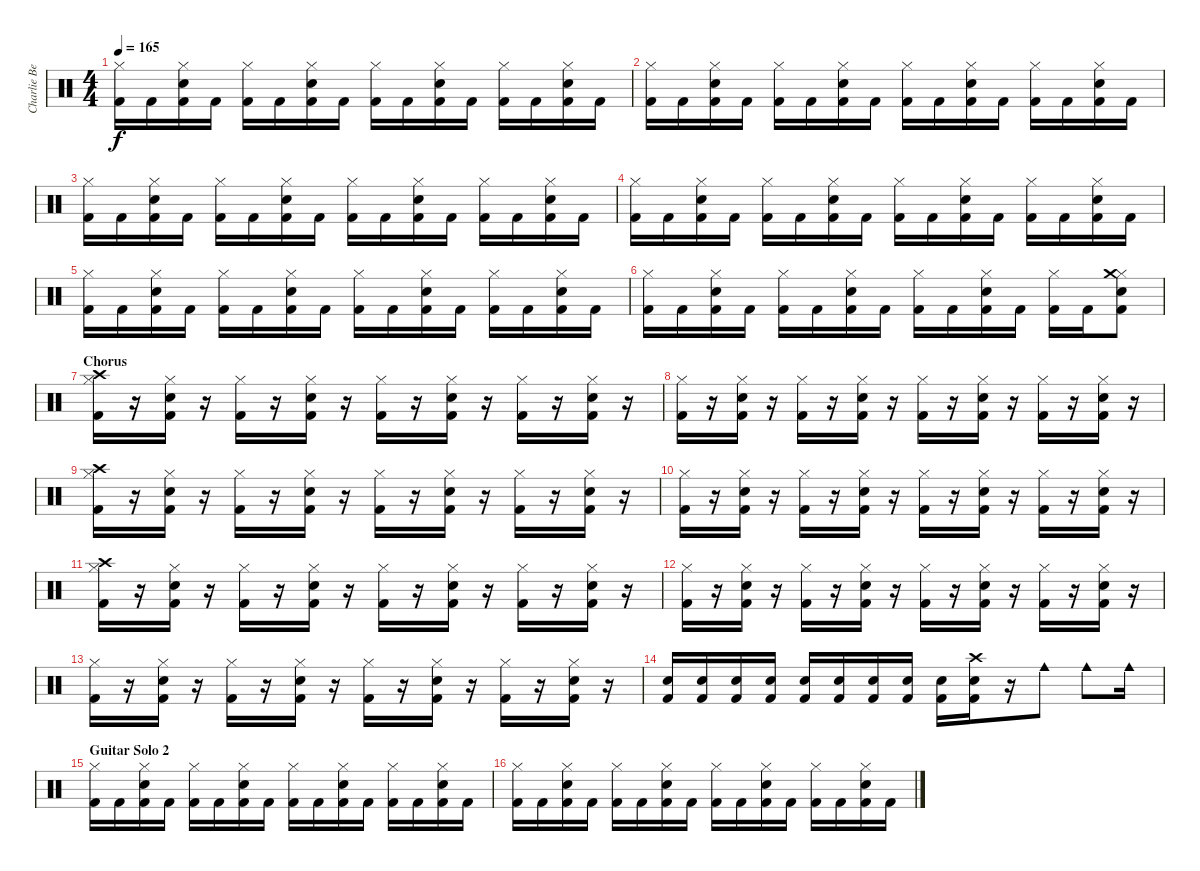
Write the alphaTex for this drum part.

\track ("Charlie Benante" "Charlie Be") {instrument percussion}
\staff {score}
\articulation defaults
\ts (4 4)
\tempo 165
\clef neutral
\ks c
("Kick (hit) 2" "Hi-Hat (closed)").16{dy f} "Kick (hit) 2".16 ("Kick (hit) 2" "Hi-Hat (closed)" "Electric Snare (hit)").16 "Kick (hit) 2".16 ("Kick (hit) 2" "Hi-Hat (closed)").16 "Kick (hit) 2".16 ("Kick (hit) 2" "Hi-Hat (closed)" "Electric Snare (hit)").16 "Kick (hit) 2".16 ("Kick (hit) 2" "Hi-Hat (closed)").16 "Kick (hit) 2".16 ("Kick (hit) 2" "Hi-Hat (closed)" "Electric Snare (hit)").16 "Kick (hit) 2".16 ("Kick (hit) 2" "Hi-Hat (closed)").16 "Kick (hit) 2".16 ("Kick (hit) 2" "Hi-Hat (closed)" "Electric Snare (hit)").16 "Kick (hit) 2".16 |
("Kick (hit) 2" "Hi-Hat (closed)").16 "Kick (hit) 2".16 ("Kick (hit) 2" "Hi-Hat (closed)" "Electric Snare (hit)").16 "Kick (hit) 2".16 ("Kick (hit) 2" "Hi-Hat (closed)").16 "Kick (hit) 2".16 ("Kick (hit) 2" "Hi-Hat (closed)" "Electric Snare (hit)").16 "Kick (hit) 2".16 ("Kick (hit) 2" "Hi-Hat (closed)").16 "Kick (hit) 2".16 ("Kick (hit) 2" "Hi-Hat (closed)" "Electric Snare (hit)").16 "Kick (hit) 2".16 ("Kick (hit) 2" "Hi-Hat (closed)").16 "Kick (hit) 2".16 ("Kick (hit) 2" "Hi-Hat (closed)" "Electric Snare (hit)").16 "Kick (hit) 2".16 |
("Kick (hit) 2" "Hi-Hat (closed)").16 "Kick (hit) 2".16 ("Kick (hit) 2" "Hi-Hat (closed)" "Electric Snare (hit)").16 "Kick (hit) 2".16 ("Kick (hit) 2" "Hi-Hat (closed)").16 "Kick (hit) 2".16 ("Kick (hit) 2" "Hi-Hat (closed)" "Electric Snare (hit)").16 "Kick (hit) 2".16 ("Kick (hit) 2" "Hi-Hat (closed)").16 "Kick (hit) 2".16 ("Kick (hit) 2" "Hi-Hat (closed)" "Electric Snare (hit)").16 "Kick (hit) 2".16 ("Kick (hit) 2" "Hi-Hat (closed)").16 "Kick (hit) 2".16 ("Kick (hit) 2" "Hi-Hat (closed)" "Electric Snare (hit)").16 "Kick (hit) 2".16 |
("Kick (hit) 2" "Hi-Hat (closed)").16 "Kick (hit) 2".16 ("Kick (hit) 2" "Hi-Hat (closed)" "Electric Snare (hit)").16 "Kick (hit) 2".16 ("Kick (hit) 2" "Hi-Hat (closed)").16 "Kick (hit) 2".16 ("Kick (hit) 2" "Hi-Hat (closed)" "Electric Snare (hit)").16 "Kick (hit) 2".16 ("Kick (hit) 2" "Hi-Hat (closed)").16 "Kick (hit) 2".16 ("Kick (hit) 2" "Hi-Hat (closed)" "Electric Snare (hit)").16 "Kick (hit) 2".16 ("Kick (hit) 2" "Hi-Hat (closed)").16 "Kick (hit) 2".16 ("Kick (hit) 2" "Hi-Hat (closed)" "Electric Snare (hit)").16 "Kick (hit) 2".16 |
("Kick (hit) 2" "Hi-Hat (closed)").16 "Kick (hit) 2".16 ("Kick (hit) 2" "Hi-Hat (closed)" "Electric Snare (hit)").16 "Kick (hit) 2".16 ("Kick (hit) 2" "Hi-Hat (closed)").16 "Kick (hit) 2".16 ("Kick (hit) 2" "Hi-Hat (closed)" "Electric Snare (hit)").16 "Kick (hit) 2".16 ("Kick (hit) 2" "Hi-Hat (closed)").16 "Kick (hit) 2".16 ("Kick (hit) 2" "Hi-Hat (closed)" "Electric Snare (hit)").16 "Kick (hit) 2".16 ("Kick (hit) 2" "Hi-Hat (closed)").16 "Kick (hit) 2".16 ("Kick (hit) 2" "Hi-Hat (closed)" "Electric Snare (hit)").16 "Kick (hit) 2".16 |
("Kick (hit) 2" "Hi-Hat (closed)").16 "Kick (hit) 2".16 ("Kick (hit) 2" "Hi-Hat (closed)" "Electric Snare (hit)").16 "Kick (hit) 2".16 ("Kick (hit) 2" "Hi-Hat (closed)").16 "Kick (hit) 2".16 ("Kick (hit) 2" "Hi-Hat (closed)" "Electric Snare (hit)").16 "Kick (hit) 2".16 ("Kick (hit) 2" "Hi-Hat (closed)").16 "Kick (hit) 2".16 ("Kick (hit) 2" "Hi-Hat (closed)" "Electric Snare (hit)").16 "Kick (hit) 2".16 ("Kick (hit) 2" "Hi-Hat (closed)").16 "Kick (hit) 2".16 ("Kick (hit) 2" "Hi-Hat (closed)" "Electric Snare (hit)" "Crash medium (hit)").8 |
\section ("" "Chorus")
("Kick (hit) 2" "Hi-Hat (closed)" "Crash high (hit)").16 r.16 ("Kick (hit) 2" "Hi-Hat (closed)" "Electric Snare (hit)").16 r.16 ("Kick (hit) 2" "Hi-Hat (closed)").16 r.16 ("Kick (hit) 2" "Hi-Hat (closed)" "Electric Snare (hit)").16 r.16 ("Kick (hit) 2" "Hi-Hat (closed)").16 r.16 ("Kick (hit) 2" "Hi-Hat (closed)" "Electric Snare (hit)").16 r.16 ("Kick (hit) 2" "Hi-Hat (closed)").16 r.16 ("Kick (hit) 2" "Hi-Hat (closed)" "Electric Snare (hit)").16 r.16 |
("Kick (hit) 2" "Hi-Hat (closed)").16 r.16 ("Kick (hit) 2" "Hi-Hat (closed)" "Electric Snare (hit)").16 r.16 ("Kick (hit) 2" "Hi-Hat (closed)").16 r.16 ("Kick (hit) 2" "Hi-Hat (closed)" "Electric Snare (hit)").16 r.16 ("Kick (hit) 2" "Hi-Hat (closed)").16 r.16 ("Kick (hit) 2" "Hi-Hat (closed)" "Electric Snare (hit)").16 r.16 ("Kick (hit) 2" "Hi-Hat (closed)").16 r.16 ("Kick (hit) 2" "Hi-Hat (closed)" "Electric Snare (hit)").16 r.16 |
("Kick (hit) 2" "Hi-Hat (closed)" "Crash high (hit)").16 r.16 ("Kick (hit) 2" "Hi-Hat (closed)" "Electric Snare (hit)").16 r.16 ("Kick (hit) 2" "Hi-Hat (closed)").16 r.16 ("Kick (hit) 2" "Hi-Hat (closed)" "Electric Snare (hit)").16 r.16 ("Kick (hit) 2" "Hi-Hat (closed)").16 r.16 ("Kick (hit) 2" "Hi-Hat (closed)" "Electric Snare (hit)").16 r.16 ("Kick (hit) 2" "Hi-Hat (closed)").16 r.16 ("Kick (hit) 2" "Hi-Hat (closed)" "Electric Snare (hit)").16 r.16 |
("Kick (hit) 2" "Hi-Hat (closed)").16 r.16 ("Kick (hit) 2" "Hi-Hat (closed)" "Electric Snare (hit)").16 r.16 ("Kick (hit) 2" "Hi-Hat (closed)").16 r.16 ("Kick (hit) 2" "Hi-Hat (closed)" "Electric Snare (hit)").16 r.16 ("Kick (hit) 2" "Hi-Hat (closed)").16 r.16 ("Kick (hit) 2" "Hi-Hat (closed)" "Electric Snare (hit)").16 r.16 ("Kick (hit) 2" "Hi-Hat (closed)").16 r.16 ("Kick (hit) 2" "Hi-Hat (closed)" "Electric Snare (hit)").16 r.16 |
("Kick (hit) 2" "Hi-Hat (closed)" "Crash high (hit)").16 r.16 ("Kick (hit) 2" "Hi-Hat (closed)" "Electric Snare (hit)").16 r.16 ("Kick (hit) 2" "Hi-Hat (closed)").16 r.16 ("Kick (hit) 2" "Hi-Hat (closed)" "Electric Snare (hit)").16 r.16 ("Kick (hit) 2" "Hi-Hat (closed)").16 r.16 ("Kick (hit) 2" "Hi-Hat (closed)" "Electric Snare (hit)").16 r.16 ("Kick (hit) 2" "Hi-Hat (closed)").16 r.16 ("Kick (hit) 2" "Hi-Hat (closed)" "Electric Snare (hit)").16 r.16 |
("Kick (hit) 2" "Hi-Hat (closed)").16 r.16 ("Kick (hit) 2" "Hi-Hat (closed)" "Electric Snare (hit)").16 r.16 ("Kick (hit) 2" "Hi-Hat (closed)").16 r.16 ("Kick (hit) 2" "Hi-Hat (closed)" "Electric Snare (hit)").16 r.16 ("Kick (hit) 2" "Hi-Hat (closed)").16 r.16 ("Kick (hit) 2" "Hi-Hat (closed)" "Electric Snare (hit)").16 r.16 ("Kick (hit) 2" "Hi-Hat (closed)").16 r.16 ("Kick (hit) 2" "Hi-Hat (closed)" "Electric Snare (hit)").16 r.16 |
("Kick (hit) 2" "Hi-Hat (closed)").16 r.16 ("Kick (hit) 2" "Hi-Hat (closed)" "Electric Snare (hit)").16 r.16 ("Kick (hit) 2" "Hi-Hat (closed)").16 r.16 ("Kick (hit) 2" "Hi-Hat (closed)" "Electric Snare (hit)").16 r.16 ("Kick (hit) 2" "Hi-Hat (closed)").16 r.16 ("Kick (hit) 2" "Hi-Hat (closed)" "Electric Snare (hit)").16 r.16 ("Kick (hit) 2" "Hi-Hat (closed)").16 r.16 ("Kick (hit) 2" "Hi-Hat (closed)" "Electric Snare (hit)").16 r.16 |
("Electric Snare (hit)" "Kick (hit) 2").16 ("Electric Snare (hit)" "Kick (hit) 2").16 ("Electric Snare (hit)" "Kick (hit) 2").16 ("Electric Snare (hit)" "Kick (hit) 2").16 ("Electric Snare (hit)" "Kick (hit) 2").16 ("Electric Snare (hit)" "Kick (hit) 2").16 ("Electric Snare (hit)" "Kick (hit) 2").16 ("Electric Snare (hit)" "Kick (hit) 2").16 ("Electric Snare (hit)" "Kick (hit) 2").16 ("Crash high (hit)" "Electric Snare (hit)" "Kick (hit) 2").16 r.16 "Cowbell medium (hit)".8 "Cowbell medium (hit)".8 "Cowbell medium (hit)".16 |
\section ("" "Guitar Solo 2")
("Kick (hit) 2" "Hi-Hat (closed)").16 "Kick (hit) 2".16 ("Kick (hit) 2" "Hi-Hat (closed)" "Electric Snare (hit)").16 "Kick (hit) 2".16 ("Kick (hit) 2" "Hi-Hat (closed)").16 "Kick (hit) 2".16 ("Kick (hit) 2" "Hi-Hat (closed)" "Electric Snare (hit)").16 "Kick (hit) 2".16 ("Kick (hit) 2" "Hi-Hat (closed)").16 "Kick (hit) 2".16 ("Kick (hit) 2" "Hi-Hat (closed)" "Electric Snare (hit)").16 "Kick (hit) 2".16 ("Kick (hit) 2" "Hi-Hat (closed)").16 "Kick (hit) 2".16 ("Kick (hit) 2" "Hi-Hat (closed)" "Electric Snare (hit)").16 "Kick (hit) 2".16 |
("Kick (hit) 2" "Hi-Hat (closed)").16 "Kick (hit) 2".16 ("Kick (hit) 2" "Hi-Hat (closed)" "Electric Snare (hit)").16 "Kick (hit) 2".16 ("Kick (hit) 2" "Hi-Hat (closed)").16 "Kick (hit) 2".16 ("Kick (hit) 2" "Hi-Hat (closed)" "Electric Snare (hit)").16 "Kick (hit) 2".16 ("Kick (hit) 2" "Hi-Hat (closed)").16 "Kick (hit) 2".16 ("Kick (hit) 2" "Hi-Hat (closed)" "Electric Snare (hit)").16 "Kick (hit) 2".16 ("Kick (hit) 2" "Hi-Hat (closed)").16 "Kick (hit) 2".16 ("Kick (hit) 2" "Hi-Hat (closed)" "Electric Snare (hit)").16 "Kick (hit) 2".16
